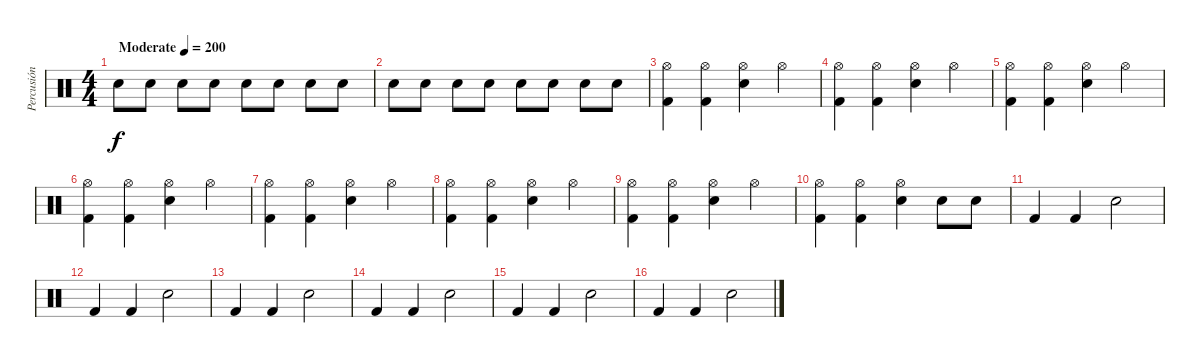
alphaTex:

\track ("Percusión" "Percusión") {instrument percussion}
\staff {score}
\articulation defaults
\ts (4 4)
\tempo (200 "Moderate")
\clef neutral
\ks c "Electric Snare (hit)".8{dy f} "Electric Snare (hit)".8 "Electric Snare (hit)".8 "Electric Snare (hit)".8 "Electric Snare (hit)".8 "Electric Snare (hit)".8 "Electric Snare (hit)".8 "Electric Snare (hit)".8
|
"Electric Snare (hit)".8 "Electric Snare (hit)".8 "Electric Snare (hit)".8 "Electric Snare (hit)".8 "Electric Snare (hit)".8 "Electric Snare (hit)".8 "Electric Snare (hit)".8 "Electric Snare (hit)".8 |
("Hi-Hat (open)" "Kick (hit) 2").4 ("Hi-Hat (open)" "Kick (hit) 2").4 ("Hi-Hat (open)" "Electric Snare (hit)").4 "Hi-Hat (open)".4 |
("Hi-Hat (open)" "Kick (hit) 2").4 ("Hi-Hat (open)" "Kick (hit) 2").4 ("Hi-Hat (open)" "Electric Snare (hit)").4 "Hi-Hat (open)".4 |
("Hi-Hat (open)" "Kick (hit) 2").4 ("Hi-Hat (open)" "Kick (hit) 2").4 ("Hi-Hat (open)" "Electric Snare (hit)").4 "Hi-Hat (open)".4 |
("Hi-Hat (open)" "Kick (hit) 2").4 ("Hi-Hat (open)" "Kick (hit) 2").4 ("Hi-Hat (open)" "Electric Snare (hit)").4 "Hi-Hat (open)".4 |
("Hi-Hat (open)" "Kick (hit) 2").4 ("Hi-Hat (open)" "Kick (hit) 2").4 ("Hi-Hat (open)" "Electric Snare (hit)").4 "Hi-Hat (open)".4 |
("Hi-Hat (open)" "Kick (hit) 2").4 ("Hi-Hat (open)" "Kick (hit) 2").4 ("Hi-Hat (open)" "Electric Snare (hit)").4 "Hi-Hat (open)".4 |
("Hi-Hat (open)" "Kick (hit) 2").4 ("Hi-Hat (open)" "Kick (hit) 2").4 ("Hi-Hat (open)" "Electric Snare (hit)").4 "Hi-Hat (open)".4 |
("Hi-Hat (open)" "Kick (hit) 2").4 ("Hi-Hat (open)" "Kick (hit) 2").4 ("Hi-Hat (open)" "Electric Snare (hit)").4 "Electric Snare (hit)".8 "Electric Snare (hit)".8 |
"Kick (hit) 2".4 "Kick (hit) 2".4 "Electric Snare (hit)".2 |
"Kick (hit) 2".4 "Kick (hit) 2".4 "Electric Snare (hit)".2 |
"Kick (hit) 2".4 "Kick (hit) 2".4 "Electric Snare (hit)".2 |
"Kick (hit) 2".4 "Kick (hit) 2".4 "Electric Snare (hit)".2 |
"Kick (hit) 2".4 "Kick (hit) 2".4 "Electric Snare (hit)".2 |
"Kick (hit) 2".4 "Kick (hit) 2".4 "Electric Snare (hit)".2
